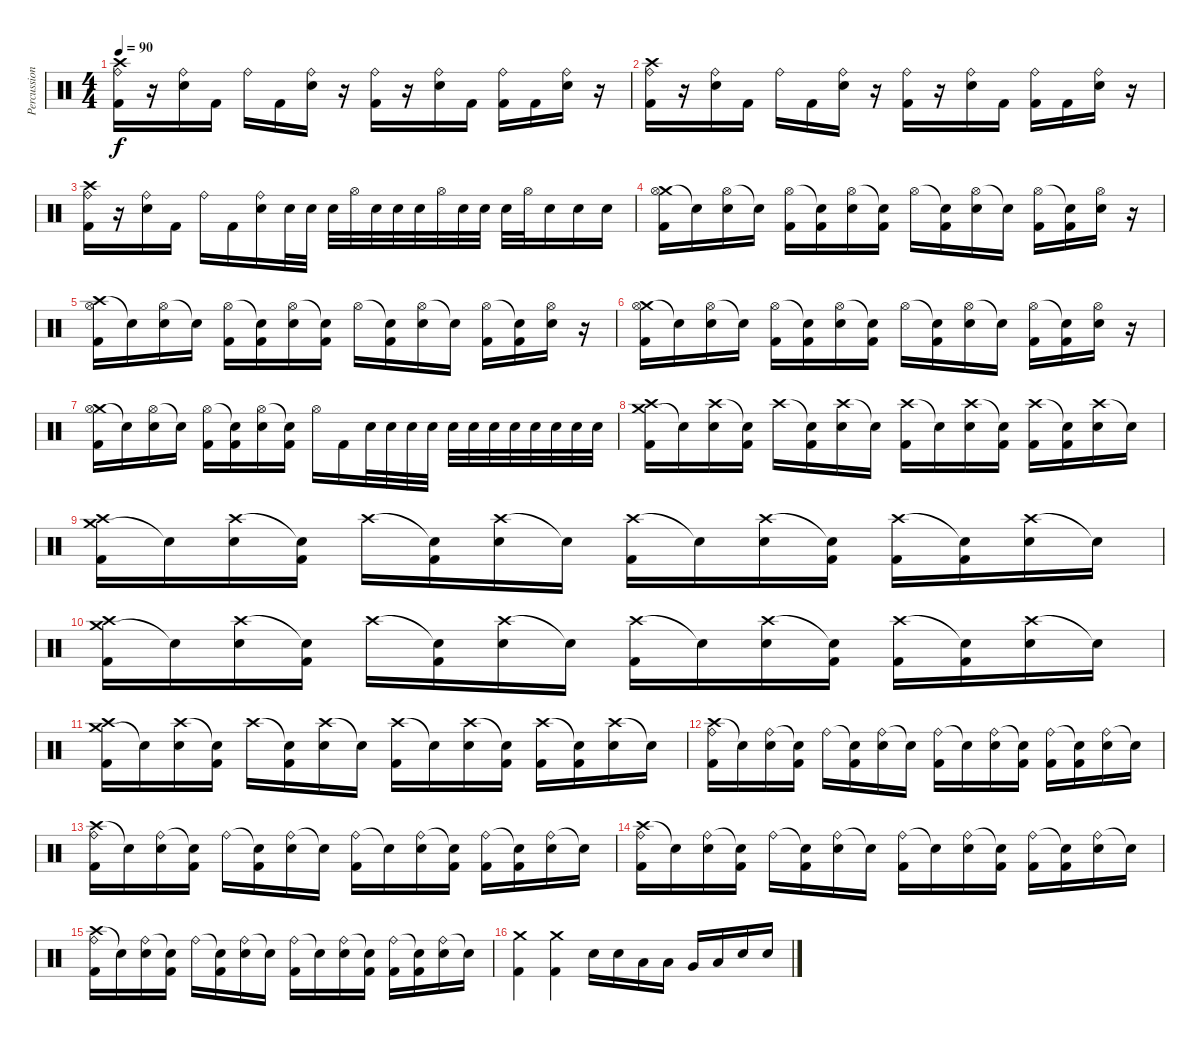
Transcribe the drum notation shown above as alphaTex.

\track ("Percussion" "Percussion") {instrument percussion}
\staff {score}
\articulation defaults
\ts (4 4)
\tempo 90
\clef neutral
\ks c
("Crash high (hit)" "Ride (bell)" "Kick (hit) 2").16{dy f} r.16 ("Ride (bell)" "Electric Snare (hit)").16 "Kick (hit) 2".16 "Ride (bell)".16 "Kick (hit) 2".16 ("Ride (bell)" "Electric Snare (hit)").16 r.16 ("Ride (bell)" "Kick (hit) 2").16 r.16 ("Ride (bell)" "Electric Snare (hit)").16 "Kick (hit) 2".16 ("Ride (bell)" "Kick (hit) 2").16 "Kick (hit) 2".16 ("Ride (bell)" "Electric Snare (hit)").16 r.16 |
("Crash high (hit)" "Ride (bell)" "Kick (hit) 2").16 r.16 ("Ride (bell)" "Electric Snare (hit)").16 "Kick (hit) 2".16 "Ride (bell)".16 "Kick (hit) 2".16 ("Ride (bell)" "Electric Snare (hit)").16 r.16 ("Ride (bell)" "Kick (hit) 2").16 r.16 ("Ride (bell)" "Electric Snare (hit)").16 "Kick (hit) 2".16 ("Ride (bell)" "Kick (hit) 2").16 "Kick (hit) 2".16 ("Ride (bell)" "Electric Snare (hit)").16 r.16 |
("Crash high (hit)" "Ride (bell)" "Kick (hit) 2").16 r.16 ("Ride (bell)" "Electric Snare (hit)").16 "Kick (hit) 2".16 "Ride (bell)".16 "Kick (hit) 2".16 ("Ride (bell)" "Electric Snare (hit)").16 "Electric Snare (hit)".32 "Electric Snare (hit)".32 "Electric Snare (hit)".32 "Hi-Hat (open)".32 "Electric Snare (hit)".32 "Electric Snare (hit)".32 "Electric Snare (hit)".32 "Hi-Hat (open)".32 "Electric Snare (hit)".32 "Electric Snare (hit)".32 "Electric Snare (hit)".32 "Hi-Hat (open)".32 "Electric Snare (hit)".16 "Electric Snare (hit)".16 "Electric Snare (hit)".16 |
("Crash medium (hit)" "Hi-Hat (open)" "Kick (hit) 2").16{volume 13} "Snare (hit)"{t}.16 ("Hi-Hat (open)" "Electric Snare (hit)").16 "Snare (hit)"{t}.16 ("Hi-Hat (open)" "Kick (hit) 2").16 ("Snare (hit)"{t} "Kick (hit) 2").16 ("Hi-Hat (open)" "Electric Snare (hit)").16 ("Snare (hit)"{t} "Kick (hit) 2").16 "Hi-Hat (open)".16 ("Snare (hit)"{t} "Kick (hit) 2").16 ("Hi-Hat (open)" "Electric Snare (hit)").16 "Snare (hit)"{t}.16 ("Hi-Hat (open)" "Kick (hit) 2").16 ("Snare (hit)"{t} "Kick (hit) 2").16 ("Hi-Hat (open)" "Electric Snare (hit)").16 r.16 |
("Crash high (hit)" "Hi-Hat (open)" "Kick (hit) 2").16{volume 13} "Snare (hit)"{t}.16 ("Hi-Hat (open)" "Electric Snare (hit)").16 "Snare (hit)"{t}.16 ("Hi-Hat (open)" "Kick (hit) 2").16 ("Snare (hit)"{t} "Kick (hit) 2").16 ("Hi-Hat (open)" "Electric Snare (hit)").16 ("Snare (hit)"{t} "Kick (hit) 2").16 "Hi-Hat (open)".16 ("Snare (hit)"{t} "Kick (hit) 2").16 ("Hi-Hat (open)" "Electric Snare (hit)").16 "Snare (hit)"{t}.16 ("Hi-Hat (open)" "Kick (hit) 2").16 ("Snare (hit)"{t} "Kick (hit) 2").16 ("Hi-Hat (open)" "Electric Snare (hit)").16 r.16 |
("Crash medium (hit)" "Hi-Hat (open)" "Kick (hit) 2").16{volume 13} "Snare (hit)"{t}.16 ("Hi-Hat (open)" "Electric Snare (hit)").16 "Snare (hit)"{t}.16 ("Hi-Hat (open)" "Kick (hit) 2").16 ("Snare (hit)"{t} "Kick (hit) 2").16 ("Hi-Hat (open)" "Electric Snare (hit)").16 ("Snare (hit)"{t} "Kick (hit) 2").16 "Hi-Hat (open)".16 ("Snare (hit)"{t} "Kick (hit) 2").16 ("Hi-Hat (open)" "Electric Snare (hit)").16 "Snare (hit)"{t}.16 ("Hi-Hat (open)" "Kick (hit) 2").16 ("Snare (hit)"{t} "Kick (hit) 2").16 ("Hi-Hat (open)" "Electric Snare (hit)").16 r.16 |
("Crash medium (hit)" "Hi-Hat (open)" "Kick (hit) 2").16{volume 13} "Snare (hit)"{t}.16 ("Hi-Hat (open)" "Electric Snare (hit)").16 "Snare (hit)"{t}.16 ("Hi-Hat (open)" "Kick (hit) 2").16 ("Snare (hit)"{t} "Kick (hit) 2").16 ("Hi-Hat (open)" "Electric Snare (hit)").16 ("Snare (hit)"{t} "Kick (hit) 2").16 "Hi-Hat (open)".16 "Kick (hit) 2".16 "Electric Snare (hit)".32 "Electric Snare (hit)".32 "Electric Snare (hit)".32 "Electric Snare (hit)".32 "Electric Snare (hit)".32 "Electric Snare (hit)".32 "Electric Snare (hit)".32 "Electric Snare (hit)".32 "Electric Snare (hit)".32 "Electric Snare (hit)".32 "Electric Snare (hit)".32 "Electric Snare (hit)".32 |
("Crash medium (hit)" "Crash high (hit)" "Kick (hit) 2").16 "Snare (hit)"{t}.16 ("Crash high (hit)" "Electric Snare (hit)").16 ("Snare (hit)"{t} "Kick (hit) 2").16 "Crash high (hit)".16 ("Snare (hit)"{t} "Kick (hit) 2").16 ("Crash high (hit)" "Electric Snare (hit)").16 "Snare (hit)"{t}.16 ("Crash high (hit)" "Kick (hit) 2").16 "Snare (hit)"{t}.16 ("Crash high (hit)" "Electric Snare (hit)").16 ("Snare (hit)"{t} "Kick (hit) 2").16 ("Crash high (hit)" "Kick (hit) 2").16 ("Snare (hit)"{t} "Kick (hit) 2").16 ("Crash high (hit)" "Electric Snare (hit)").16 "Snare (hit)"{t}.16 |
("Crash medium (hit)" "Crash high (hit)" "Kick (hit) 2").16 "Snare (hit)"{t}.16 ("Crash high (hit)" "Electric Snare (hit)").16 ("Snare (hit)"{t} "Kick (hit) 2").16 "Crash high (hit)".16 ("Snare (hit)"{t} "Kick (hit) 2").16 ("Crash high (hit)" "Electric Snare (hit)").16 "Snare (hit)"{t}.16 ("Crash high (hit)" "Kick (hit) 2").16 "Snare (hit)"{t}.16 ("Crash high (hit)" "Electric Snare (hit)").16 ("Snare (hit)"{t} "Kick (hit) 2").16 ("Crash high (hit)" "Kick (hit) 2").16 ("Snare (hit)"{t} "Kick (hit) 2").16 ("Crash high (hit)" "Electric Snare (hit)").16 "Snare (hit)"{t}.16 |
("Crash medium (hit)" "Crash high (hit)" "Kick (hit) 2").16 "Snare (hit)"{t}.16 ("Crash high (hit)" "Electric Snare (hit)").16 ("Snare (hit)"{t} "Kick (hit) 2").16 "Crash high (hit)".16 ("Snare (hit)"{t} "Kick (hit) 2").16 ("Crash high (hit)" "Electric Snare (hit)").16 "Snare (hit)"{t}.16 ("Crash high (hit)" "Kick (hit) 2").16 "Snare (hit)"{t}.16 ("Crash high (hit)" "Electric Snare (hit)").16 ("Snare (hit)"{t} "Kick (hit) 2").16 ("Crash high (hit)" "Kick (hit) 2").16 ("Snare (hit)"{t} "Kick (hit) 2").16 ("Crash high (hit)" "Electric Snare (hit)").16 "Snare (hit)"{t}.16 |
("Crash medium (hit)" "Crash high (hit)" "Kick (hit) 2").16 "Snare (hit)"{t}.16 ("Crash high (hit)" "Electric Snare (hit)").16 ("Snare (hit)"{t} "Kick (hit) 2").16 "Crash high (hit)".16 ("Snare (hit)"{t} "Kick (hit) 2").16 ("Crash high (hit)" "Electric Snare (hit)").16 "Snare (hit)"{t}.16 ("Crash high (hit)" "Kick (hit) 2").16 "Snare (hit)"{t}.16 ("Crash high (hit)" "Electric Snare (hit)").16 ("Snare (hit)"{t} "Kick (hit) 2").16 ("Crash high (hit)" "Kick (hit) 2").16 ("Snare (hit)"{t} "Kick (hit) 2").16 ("Crash high (hit)" "Electric Snare (hit)").16 "Snare (hit)"{t}.16 |
("Crash high (hit)" "Ride (bell)" "Kick (hit) 2").16 "Snare (hit)"{t}.16 ("Ride (bell)" "Electric Snare (hit)").16 ("Snare (hit)"{t} "Kick (hit) 2").16 "Ride (bell)".16 ("Snare (hit)"{t} "Kick (hit) 2").16 ("Ride (bell)" "Electric Snare (hit)").16 "Snare (hit)"{t}.16 ("Ride (bell)" "Kick (hit) 2").16 "Snare (hit)"{t}.16 ("Ride (bell)" "Electric Snare (hit)").16 ("Snare (hit)"{t} "Kick (hit) 2").16 ("Ride (bell)" "Kick (hit) 2").16 ("Snare (hit)"{t} "Kick (hit) 2").16 ("Ride (bell)" "Electric Snare (hit)").16 "Snare (hit)"{t}.16 |
("Crash high (hit)" "Ride (bell)" "Kick (hit) 2").16 "Snare (hit)"{t}.16 ("Ride (bell)" "Electric Snare (hit)").16 ("Snare (hit)"{t} "Kick (hit) 2").16 "Ride (bell)".16 ("Snare (hit)"{t} "Kick (hit) 2").16 ("Ride (bell)" "Electric Snare (hit)").16 "Snare (hit)"{t}.16 ("Ride (bell)" "Kick (hit) 2").16 "Snare (hit)"{t}.16 ("Ride (bell)" "Electric Snare (hit)").16 ("Snare (hit)"{t} "Kick (hit) 2").16 ("Ride (bell)" "Kick (hit) 2").16 ("Snare (hit)"{t} "Kick (hit) 2").16 ("Ride (bell)" "Electric Snare (hit)").16 "Snare (hit)"{t}.16 |
("Crash high (hit)" "Ride (bell)" "Kick (hit) 2").16 "Snare (hit)"{t}.16 ("Ride (bell)" "Electric Snare (hit)").16 ("Snare (hit)"{t} "Kick (hit) 2").16 "Ride (bell)".16 ("Snare (hit)"{t} "Kick (hit) 2").16 ("Ride (bell)" "Electric Snare (hit)").16 "Snare (hit)"{t}.16 ("Ride (bell)" "Kick (hit) 2").16 "Snare (hit)"{t}.16 ("Ride (bell)" "Electric Snare (hit)").16 ("Snare (hit)"{t} "Kick (hit) 2").16 ("Ride (bell)" "Kick (hit) 2").16 ("Snare (hit)"{t} "Kick (hit) 2").16 ("Ride (bell)" "Electric Snare (hit)").16 "Snare (hit)"{t}.16 |
("Crash high (hit)" "Ride (bell)" "Kick (hit) 2").16 "Snare (hit)"{t}.16 ("Ride (bell)" "Electric Snare (hit)").16 ("Snare (hit)"{t} "Kick (hit) 2").16 "Ride (bell)".16 ("Snare (hit)"{t} "Kick (hit) 2").16 ("Ride (bell)" "Electric Snare (hit)").16 "Snare (hit)"{t}.16 ("Ride (bell)" "Kick (hit) 2").16 "Snare (hit)"{t}.16 ("Ride (bell)" "Electric Snare (hit)").16 ("Snare (hit)"{t} "Kick (hit) 2").16 ("Ride (bell)" "Kick (hit) 2").16 ("Snare (hit)"{t} "Kick (hit) 2").16 ("Ride (bell)" "Electric Snare (hit)").16 "Snare (hit)"{t}.16 |
("Crash medium (hit)" "Kick (hit) 2").4 ("Crash medium (hit)" "Kick (hit) 2").4 "Electric Snare (hit)".16 "Electric Snare (hit)".16 "Low Tom (hit)".16 "Low Tom (hit)".16 "Very Low Tom (hit)".16 "Low Floor Tom (hit)".16 "Electric Snare (hit)".16 "Electric Snare (hit)".16
